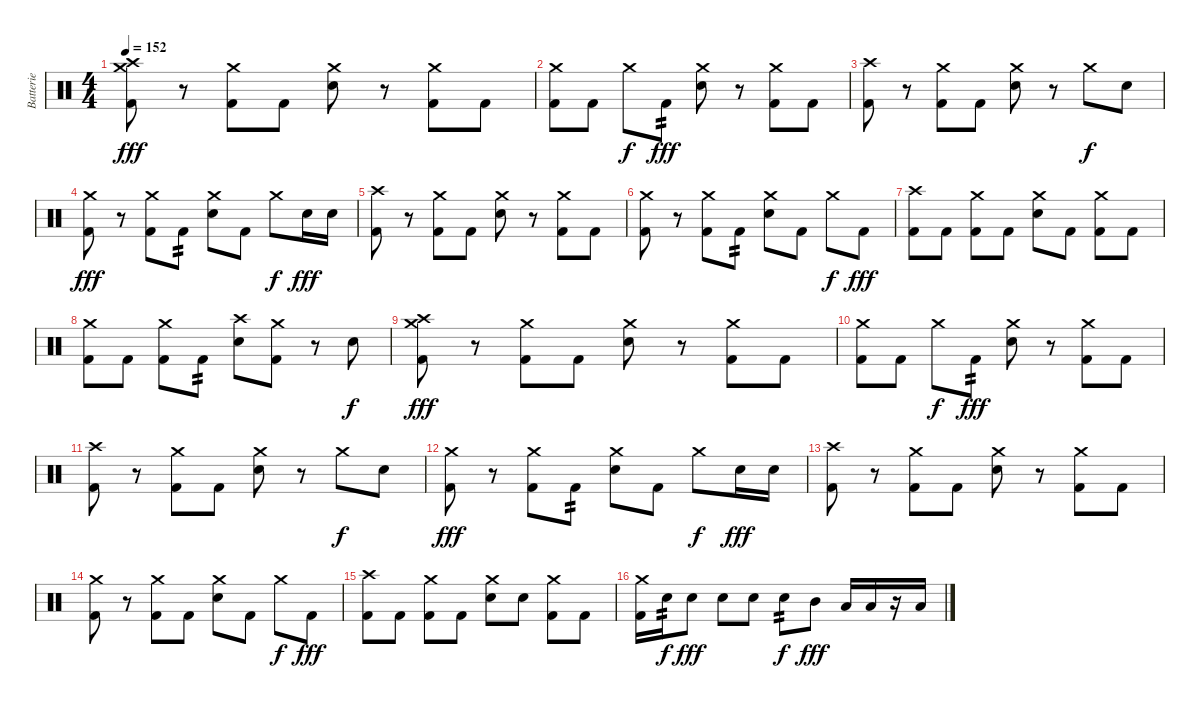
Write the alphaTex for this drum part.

\track ("Batterie" "Batterie") {instrument percussion}
\staff {score}
\articulation defaults
\ts (4 4)
\tempo 152
\clef neutral
\ks c
("Crash high (hit)" "Crash medium (hit)" "Kick (hit) 2").8{dy fff} r.8 ("Crash medium (hit)" "Kick (hit) 2").8 "Kick (hit) 2".8 ("Crash medium (hit)" "Electric Snare (hit)").8 r.8 ("Crash medium (hit)" "Kick (hit) 2").8 "Kick (hit) 2".8 |
("Crash medium (hit)" "Kick (hit) 2").8 "Kick (hit) 2".8 "Crash medium (hit)".8{dy f} "Kick (hit) 2".8{tp 2 dy fff} ("Crash medium (hit)" "Electric Snare (hit)").8 r.8 ("Crash medium (hit)" "Kick (hit) 2").8 "Kick (hit) 2".8 |
("Crash high (hit)" "Kick (hit) 2").8 r.8 ("Crash medium (hit)" "Kick (hit) 2").8 "Kick (hit) 2".8 ("Crash medium (hit)" "Electric Snare (hit)").8 r.8 "Crash medium (hit)".8{dy f} "Electric Snare (hit)".8 |
("Crash medium (hit)" "Kick (hit) 2").8{dy fff} r.8 ("Crash medium (hit)" "Kick (hit) 2").8 "Kick (hit) 2".8{tp 2} ("Crash medium (hit)" "Electric Snare (hit)").8 "Kick (hit) 2".8 "Crash medium (hit)".8{dy f} "Electric Snare (hit)".16{dy fff} "Electric Snare (hit)".16 |
("Crash high (hit)" "Kick (hit) 2").8 r.8 ("Crash medium (hit)" "Kick (hit) 2").8 "Kick (hit) 2".8 ("Crash medium (hit)" "Electric Snare (hit)").8 r.8 ("Crash medium (hit)" "Kick (hit) 2").8 "Kick (hit) 2".8 |
("Crash medium (hit)" "Kick (hit) 2").8 r.8 ("Crash medium (hit)" "Kick (hit) 2").8 "Kick (hit) 2".8{tp 2} ("Crash medium (hit)" "Electric Snare (hit)").8 "Kick (hit) 2".8 "Crash medium (hit)".8{dy f} "Kick (hit) 2".8{dy fff} |
("Crash high (hit)" "Kick (hit) 2").8 "Kick (hit) 2".8 ("Crash medium (hit)" "Kick (hit) 2").8 "Kick (hit) 2".8 ("Crash medium (hit)" "Electric Snare (hit)").8 "Kick (hit) 2".8 ("Crash medium (hit)" "Kick (hit) 2").8 "Kick (hit) 2".8 |
("Crash medium (hit)" "Kick (hit) 2").8 "Kick (hit) 2".8 ("Crash medium (hit)" "Kick (hit) 2").8 "Kick (hit) 2".8{tp 2} ("Crash high (hit)" "Electric Snare (hit)").8 ("Crash medium (hit)" "Kick (hit) 2").8 r.8 "Electric Snare (hit)".8{dy f} |
("Crash high (hit)" "Crash medium (hit)" "Kick (hit) 2").8{dy fff} r.8 ("Crash medium (hit)" "Kick (hit) 2").8 "Kick (hit) 2".8 ("Crash medium (hit)" "Electric Snare (hit)").8 r.8 ("Crash medium (hit)" "Kick (hit) 2").8 "Kick (hit) 2".8 |
("Crash medium (hit)" "Kick (hit) 2").8 "Kick (hit) 2".8 "Crash medium (hit)".8{dy f} "Kick (hit) 2".8{tp 2 dy fff} ("Crash medium (hit)" "Electric Snare (hit)").8 r.8 ("Crash medium (hit)" "Kick (hit) 2").8 "Kick (hit) 2".8 |
("Crash high (hit)" "Kick (hit) 2").8 r.8 ("Crash medium (hit)" "Kick (hit) 2").8 "Kick (hit) 2".8 ("Crash medium (hit)" "Electric Snare (hit)").8 r.8 "Crash medium (hit)".8{dy f} "Electric Snare (hit)".8 |
("Crash medium (hit)" "Kick (hit) 2").8{dy fff} r.8 ("Crash medium (hit)" "Kick (hit) 2").8 "Kick (hit) 2".8{tp 2} ("Crash medium (hit)" "Electric Snare (hit)").8 "Kick (hit) 2".8 "Crash medium (hit)".8{dy f} "Electric Snare (hit)".16{dy fff} "Electric Snare (hit)".16 |
("Crash high (hit)" "Kick (hit) 2").8 r.8 ("Crash medium (hit)" "Kick (hit) 2").8 "Kick (hit) 2".8 ("Crash medium (hit)" "Electric Snare (hit)").8 r.8 ("Crash medium (hit)" "Kick (hit) 2").8 "Kick (hit) 2".8 |
("Crash medium (hit)" "Kick (hit) 2").8 r.8 ("Crash medium (hit)" "Kick (hit) 2").8 "Kick (hit) 2".8 ("Crash medium (hit)" "Electric Snare (hit)").8 "Kick (hit) 2".8 "Crash medium (hit)".8{dy f} "Kick (hit) 2".8{dy fff} |
("Crash high (hit)" "Kick (hit) 2").8 "Kick (hit) 2".8 ("Crash medium (hit)" "Kick (hit) 2").8 "Kick (hit) 2".8 ("Crash medium (hit)" "Electric Snare (hit)").8 "Electric Snare (hit)".8 ("Crash medium (hit)" "Kick (hit) 2").8 "Kick (hit) 2".8 |
("Crash medium (hit)" "Kick (hit) 2").16 "Electric Snare (hit)".16{tp 2 dy f} "Electric Snare (hit)".8{dy fff} "Electric Snare (hit)".8 "Electric Snare (hit)".8 "Electric Snare (hit)".8{tp 2 dy f} "Mid Tom (hit)".8{dy fff} "Low Tom (hit)".16 "Low Tom (hit)".16 r.16 "Low Tom (hit)".16
